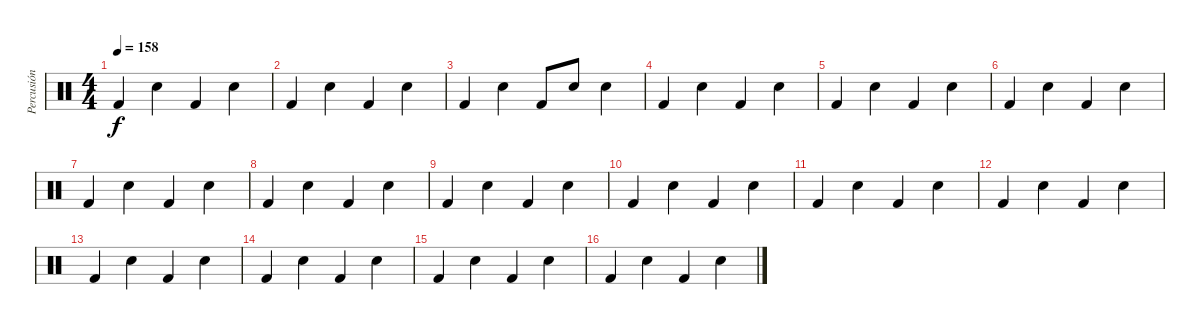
\track ("Percusión" "Percusión") {instrument percussion}
\staff {score}
\articulation defaults
\ts (4 4)
\tempo 158
\clef neutral
\ks c "Kick (hit) 2".4{dy f} "Electric Snare (hit)".4 "Kick (hit) 2".4 "Electric Snare (hit)".4
|
"Kick (hit) 2".4{volume 16} "Electric Snare (hit)".4 "Kick (hit) 2".4 "Electric Snare (hit)".4 |
"Kick (hit) 2".4{volume 16} "Electric Snare (hit)".4 "Kick (hit) 2".8 "Electric Snare (hit)".8 "Electric Snare (hit)".4 |
"Kick (hit) 2".4{volume 16} "Electric Snare (hit)".4 "Kick (hit) 2".4 "Electric Snare (hit)".4 |
"Kick (hit) 2".4 "Electric Snare (hit)".4 "Kick (hit) 2".4 "Electric Snare (hit)".4 |
"Kick (hit) 2".4{volume 16} "Electric Snare (hit)".4 "Kick (hit) 2".4 "Electric Snare (hit)".4 |
"Kick (hit) 2".4 "Electric Snare (hit)".4 "Kick (hit) 2".4 "Electric Snare (hit)".4 |
"Kick (hit) 2".4{volume 16} "Electric Snare (hit)".4 "Kick (hit) 2".4 "Electric Snare (hit)".4 |
"Kick (hit) 2".4 "Electric Snare (hit)".4 "Kick (hit) 2".4 "Electric Snare (hit)".4 |
"Kick (hit) 2".4{volume 16} "Electric Snare (hit)".4 "Kick (hit) 2".4 "Electric Snare (hit)".4 |
"Kick (hit) 2".4 "Electric Snare (hit)".4 "Kick (hit) 2".4 "Electric Snare (hit)".4 |
"Kick (hit) 2".4{volume 16} "Electric Snare (hit)".4 "Kick (hit) 2".4 "Electric Snare (hit)".4 |
"Kick (hit) 2".4 "Electric Snare (hit)".4 "Kick (hit) 2".4 "Electric Snare (hit)".4 |
"Kick (hit) 2".4{volume 16} "Electric Snare (hit)".4 "Kick (hit) 2".4 "Electric Snare (hit)".4 |
"Kick (hit) 2".4 "Electric Snare (hit)".4 "Kick (hit) 2".4 "Electric Snare (hit)".4 |
"Kick (hit) 2".4{volume 16} "Electric Snare (hit)".4 "Kick (hit) 2".4 "Electric Snare (hit)".4
